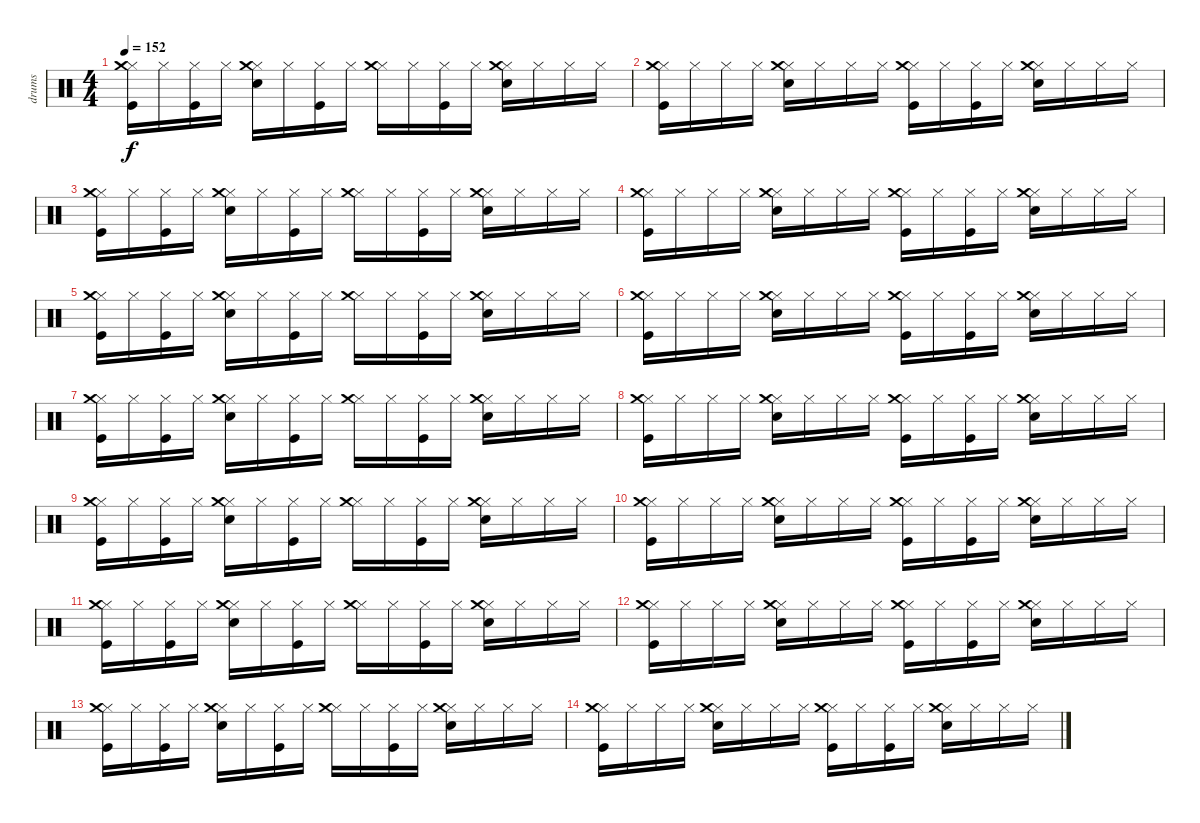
\track ("drums" "drums") {instrument percussion}
\staff {score}
\articulation defaults
\ts (4 4)
\tempo 152
\clef neutral
\ks c
("Hi-Hat (closed)" "Crash medium (hit)" "Kick (hit)").16{dy f} "Hi-Hat (closed)".16 ("Hi-Hat (closed)" "Kick (hit)").16 "Hi-Hat (closed)".16 ("Hi-Hat (closed)" "Crash medium (hit)" "Snare (hit) 2").16 "Hi-Hat (closed)".16 ("Hi-Hat (closed)" "Kick (hit)").16 "Hi-Hat (closed)".16 ("Hi-Hat (closed)" "Crash medium (hit)").16 "Hi-Hat (closed)".16 ("Hi-Hat (closed)" "Kick (hit)").16 "Hi-Hat (closed)".16 ("Hi-Hat (closed)" "Crash medium (hit)" "Snare (hit) 2").16 "Hi-Hat (closed)".16 "Hi-Hat (closed)".16 "Hi-Hat (closed)".16 |
("Hi-Hat (closed)" "Crash medium (hit)" "Kick (hit)").16 "Hi-Hat (closed)".16 "Hi-Hat (closed)".16 "Hi-Hat (closed)".16 ("Hi-Hat (closed)" "Crash medium (hit)" "Snare (hit) 2").16 "Hi-Hat (closed)".16 "Hi-Hat (closed)".16 "Hi-Hat (closed)".16 ("Hi-Hat (closed)" "Crash medium (hit)" "Kick (hit)").16 "Hi-Hat (closed)".16 ("Hi-Hat (closed)" "Kick (hit)").16 "Hi-Hat (closed)".16 ("Hi-Hat (closed)" "Crash medium (hit)" "Snare (hit) 2").16 "Hi-Hat (closed)".16 "Hi-Hat (closed)".16 "Hi-Hat (closed)".16 |
("Hi-Hat (closed)" "Crash medium (hit)" "Kick (hit)").16 "Hi-Hat (closed)".16 ("Hi-Hat (closed)" "Kick (hit)").16 "Hi-Hat (closed)".16 ("Hi-Hat (closed)" "Crash medium (hit)" "Snare (hit) 2").16 "Hi-Hat (closed)".16 ("Hi-Hat (closed)" "Kick (hit)").16 "Hi-Hat (closed)".16 ("Hi-Hat (closed)" "Crash medium (hit)").16 "Hi-Hat (closed)".16 ("Hi-Hat (closed)" "Kick (hit)").16 "Hi-Hat (closed)".16 ("Hi-Hat (closed)" "Crash medium (hit)" "Snare (hit) 2").16 "Hi-Hat (closed)".16 "Hi-Hat (closed)".16 "Hi-Hat (closed)".16 |
("Hi-Hat (closed)" "Crash medium (hit)" "Kick (hit)").16 "Hi-Hat (closed)".16 "Hi-Hat (closed)".16 "Hi-Hat (closed)".16 ("Hi-Hat (closed)" "Crash medium (hit)" "Snare (hit) 2").16 "Hi-Hat (closed)".16 "Hi-Hat (closed)".16 "Hi-Hat (closed)".16 ("Hi-Hat (closed)" "Crash medium (hit)" "Kick (hit)").16 "Hi-Hat (closed)".16 ("Hi-Hat (closed)" "Kick (hit)").16 "Hi-Hat (closed)".16 ("Hi-Hat (closed)" "Crash medium (hit)" "Snare (hit) 2").16 "Hi-Hat (closed)".16 "Hi-Hat (closed)".16 "Hi-Hat (closed)".16 |
("Hi-Hat (closed)" "Crash medium (hit)" "Kick (hit)").16 "Hi-Hat (closed)".16 ("Hi-Hat (closed)" "Kick (hit)").16 "Hi-Hat (closed)".16 ("Hi-Hat (closed)" "Crash medium (hit)" "Snare (hit) 2").16 "Hi-Hat (closed)".16 ("Hi-Hat (closed)" "Kick (hit)").16 "Hi-Hat (closed)".16 ("Hi-Hat (closed)" "Crash medium (hit)").16 "Hi-Hat (closed)".16 ("Hi-Hat (closed)" "Kick (hit)").16 "Hi-Hat (closed)".16 ("Hi-Hat (closed)" "Crash medium (hit)" "Snare (hit) 2").16 "Hi-Hat (closed)".16 "Hi-Hat (closed)".16 "Hi-Hat (closed)".16 |
("Hi-Hat (closed)" "Crash medium (hit)" "Kick (hit)").16 "Hi-Hat (closed)".16 "Hi-Hat (closed)".16 "Hi-Hat (closed)".16 ("Hi-Hat (closed)" "Crash medium (hit)" "Snare (hit) 2").16 "Hi-Hat (closed)".16 "Hi-Hat (closed)".16 "Hi-Hat (closed)".16 ("Hi-Hat (closed)" "Crash medium (hit)" "Kick (hit)").16 "Hi-Hat (closed)".16 ("Hi-Hat (closed)" "Kick (hit)").16 "Hi-Hat (closed)".16 ("Hi-Hat (closed)" "Crash medium (hit)" "Snare (hit) 2").16 "Hi-Hat (closed)".16 "Hi-Hat (closed)".16 "Hi-Hat (closed)".16 |
("Hi-Hat (closed)" "Crash medium (hit)" "Kick (hit)").16 "Hi-Hat (closed)".16 ("Hi-Hat (closed)" "Kick (hit)").16 "Hi-Hat (closed)".16 ("Hi-Hat (closed)" "Crash medium (hit)" "Snare (hit) 2").16 "Hi-Hat (closed)".16 ("Hi-Hat (closed)" "Kick (hit)").16 "Hi-Hat (closed)".16 ("Hi-Hat (closed)" "Crash medium (hit)").16 "Hi-Hat (closed)".16 ("Hi-Hat (closed)" "Kick (hit)").16 "Hi-Hat (closed)".16 ("Hi-Hat (closed)" "Crash medium (hit)" "Snare (hit) 2").16 "Hi-Hat (closed)".16 "Hi-Hat (closed)".16 "Hi-Hat (closed)".16 |
("Hi-Hat (closed)" "Crash medium (hit)" "Kick (hit)").16 "Hi-Hat (closed)".16 "Hi-Hat (closed)".16 "Hi-Hat (closed)".16 ("Hi-Hat (closed)" "Crash medium (hit)" "Snare (hit) 2").16 "Hi-Hat (closed)".16 "Hi-Hat (closed)".16 "Hi-Hat (closed)".16 ("Hi-Hat (closed)" "Crash medium (hit)" "Kick (hit)").16 "Hi-Hat (closed)".16 ("Hi-Hat (closed)" "Kick (hit)").16 "Hi-Hat (closed)".16 ("Hi-Hat (closed)" "Crash medium (hit)" "Snare (hit) 2").16 "Hi-Hat (closed)".16 "Hi-Hat (closed)".16 "Hi-Hat (closed)".16 |
("Hi-Hat (closed)" "Crash medium (hit)" "Kick (hit)").16 "Hi-Hat (closed)".16 ("Hi-Hat (closed)" "Kick (hit)").16 "Hi-Hat (closed)".16 ("Hi-Hat (closed)" "Crash medium (hit)" "Snare (hit) 2").16 "Hi-Hat (closed)".16 ("Hi-Hat (closed)" "Kick (hit)").16 "Hi-Hat (closed)".16 ("Hi-Hat (closed)" "Crash medium (hit)").16 "Hi-Hat (closed)".16 ("Hi-Hat (closed)" "Kick (hit)").16 "Hi-Hat (closed)".16 ("Hi-Hat (closed)" "Crash medium (hit)" "Snare (hit) 2").16 "Hi-Hat (closed)".16 "Hi-Hat (closed)".16 "Hi-Hat (closed)".16 |
("Hi-Hat (closed)" "Crash medium (hit)" "Kick (hit)").16 "Hi-Hat (closed)".16 "Hi-Hat (closed)".16 "Hi-Hat (closed)".16 ("Hi-Hat (closed)" "Crash medium (hit)" "Snare (hit) 2").16 "Hi-Hat (closed)".16 "Hi-Hat (closed)".16 "Hi-Hat (closed)".16 ("Hi-Hat (closed)" "Crash medium (hit)" "Kick (hit)").16 "Hi-Hat (closed)".16 ("Hi-Hat (closed)" "Kick (hit)").16 "Hi-Hat (closed)".16 ("Hi-Hat (closed)" "Crash medium (hit)" "Snare (hit) 2").16 "Hi-Hat (closed)".16 "Hi-Hat (closed)".16 "Hi-Hat (closed)".16 |
("Hi-Hat (closed)" "Crash medium (hit)" "Kick (hit)").16 "Hi-Hat (closed)".16 ("Hi-Hat (closed)" "Kick (hit)").16 "Hi-Hat (closed)".16 ("Hi-Hat (closed)" "Crash medium (hit)" "Snare (hit) 2").16 "Hi-Hat (closed)".16 ("Hi-Hat (closed)" "Kick (hit)").16 "Hi-Hat (closed)".16 ("Hi-Hat (closed)" "Crash medium (hit)").16 "Hi-Hat (closed)".16 ("Hi-Hat (closed)" "Kick (hit)").16 "Hi-Hat (closed)".16 ("Hi-Hat (closed)" "Crash medium (hit)" "Snare (hit) 2").16 "Hi-Hat (closed)".16 "Hi-Hat (closed)".16 "Hi-Hat (closed)".16 |
("Hi-Hat (closed)" "Crash medium (hit)" "Kick (hit)").16 "Hi-Hat (closed)".16 "Hi-Hat (closed)".16 "Hi-Hat (closed)".16 ("Hi-Hat (closed)" "Crash medium (hit)" "Snare (hit) 2").16 "Hi-Hat (closed)".16 "Hi-Hat (closed)".16 "Hi-Hat (closed)".16 ("Hi-Hat (closed)" "Crash medium (hit)" "Kick (hit)").16 "Hi-Hat (closed)".16 ("Hi-Hat (closed)" "Kick (hit)").16 "Hi-Hat (closed)".16 ("Hi-Hat (closed)" "Crash medium (hit)" "Snare (hit) 2").16 "Hi-Hat (closed)".16 "Hi-Hat (closed)".16 "Hi-Hat (closed)".16 |
("Hi-Hat (closed)" "Crash medium (hit)" "Kick (hit)").16 "Hi-Hat (closed)".16 ("Hi-Hat (closed)" "Kick (hit)").16 "Hi-Hat (closed)".16 ("Hi-Hat (closed)" "Crash medium (hit)" "Snare (hit) 2").16 "Hi-Hat (closed)".16 ("Hi-Hat (closed)" "Kick (hit)").16 "Hi-Hat (closed)".16 ("Hi-Hat (closed)" "Crash medium (hit)").16 "Hi-Hat (closed)".16 ("Hi-Hat (closed)" "Kick (hit)").16 "Hi-Hat (closed)".16 ("Hi-Hat (closed)" "Crash medium (hit)" "Snare (hit) 2").16 "Hi-Hat (closed)".16 "Hi-Hat (closed)".16 "Hi-Hat (closed)".16 |
("Hi-Hat (closed)" "Crash medium (hit)" "Kick (hit)").16 "Hi-Hat (closed)".16 "Hi-Hat (closed)".16 "Hi-Hat (closed)".16 ("Hi-Hat (closed)" "Crash medium (hit)" "Snare (hit) 2").16 "Hi-Hat (closed)".16 "Hi-Hat (closed)".16 "Hi-Hat (closed)".16 ("Hi-Hat (closed)" "Crash medium (hit)" "Kick (hit)").16 "Hi-Hat (closed)".16 ("Hi-Hat (closed)" "Kick (hit)").16 "Hi-Hat (closed)".16 ("Hi-Hat (closed)" "Crash medium (hit)" "Snare (hit) 2").16 "Hi-Hat (closed)".16 "Hi-Hat (closed)".16 "Hi-Hat (closed)".16
